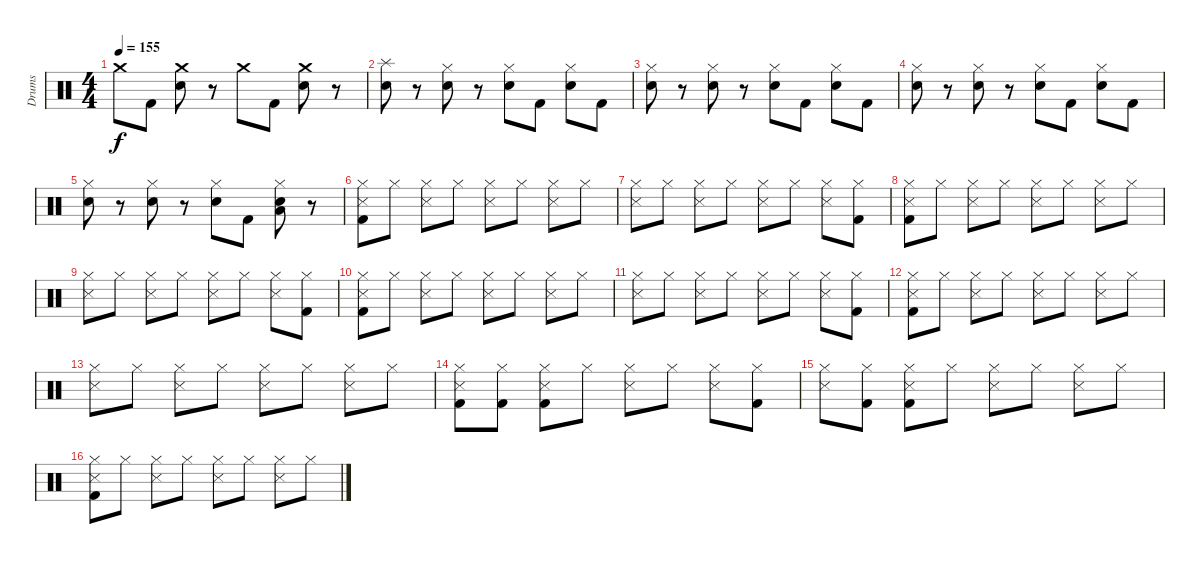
\track ("Drums" "Drums") {instrument percussion}
\staff {score}
\articulation defaults
\ts (4 4)
\tempo 155
\clef neutral
\ks c "Crash medium (hit)".8{dy f} "Kick (hit) 2".8
("Crash medium (hit)" "Electric Snare (hit)").8 r.8 "Crash medium (hit)".8 "Kick (hit) 2".8 ("Crash medium (hit)" "Electric Snare (hit)").8 r.8 |
("Splash (hit)" "Electric Snare (hit)").8 r.8 ("Hi-Hat (closed)" "Electric Snare (hit)").8 r.8 ("Hi-Hat (closed)" "Electric Snare (hit)").8 "Kick (hit) 2".8 ("Hi-Hat (closed)" "Electric Snare (hit)").8 "Kick (hit) 2".8 |
("Hi-Hat (closed)" "Electric Snare (hit)").8 r.8 ("Hi-Hat (closed)" "Electric Snare (hit)").8 r.8 ("Hi-Hat (closed)" "Electric Snare (hit)").8 "Kick (hit) 2".8 ("Hi-Hat (closed)" "Electric Snare (hit)").8 "Kick (hit) 2".8 |
("Hi-Hat (closed)" "Electric Snare (hit)").8 r.8 ("Hi-Hat (closed)" "Electric Snare (hit)").8 r.8 ("Hi-Hat (closed)" "Electric Snare (hit)").8 "Kick (hit) 2".8 ("Hi-Hat (closed)" "Electric Snare (hit)").8 "Kick (hit) 2".8 |
("Hi-Hat (closed)" "Electric Snare (hit)").8 r.8 ("Hi-Hat (closed)" "Electric Snare (hit)").8 r.8 ("Hi-Hat (closed)" "Electric Snare (hit)").8 "Kick (hit) 2".8 ("Hi-Hat (closed)" "Electric Snare (hit)" "Low Floor Tom (hit)").8 r.8 |
("Hi-Hat (closed)" "Snare (side stick) 3" "Kick (hit) 2").8 "Hi-Hat (closed)".8 ("Hi-Hat (closed)" "Snare (side stick) 3").8 "Hi-Hat (closed)".8 ("Hi-Hat (closed)" "Snare (side stick) 3").8 "Hi-Hat (closed)".8 ("Hi-Hat (closed)" "Snare (side stick) 3").8 "Hi-Hat (closed)".8 |
("Hi-Hat (closed)" "Snare (side stick) 3").8 "Hi-Hat (closed)".8 ("Hi-Hat (closed)" "Snare (side stick) 3").8 "Hi-Hat (closed)".8 ("Hi-Hat (closed)" "Snare (side stick) 3").8 "Hi-Hat (closed)".8 ("Hi-Hat (closed)" "Snare (side stick) 3").8 ("Hi-Hat (closed)" "Kick (hit) 2").8 |
("Hi-Hat (closed)" "Snare (side stick) 3" "Kick (hit) 2").8 "Hi-Hat (closed)".8 ("Hi-Hat (closed)" "Snare (side stick) 3").8 "Hi-Hat (closed)".8 ("Hi-Hat (closed)" "Snare (side stick) 3").8 "Hi-Hat (closed)".8 ("Hi-Hat (closed)" "Snare (side stick) 3").8 "Hi-Hat (closed)".8 |
("Hi-Hat (closed)" "Snare (side stick) 3").8 "Hi-Hat (closed)".8 ("Hi-Hat (closed)" "Snare (side stick) 3").8 "Hi-Hat (closed)".8 ("Hi-Hat (closed)" "Snare (side stick) 3").8 "Hi-Hat (closed)".8 ("Hi-Hat (closed)" "Snare (side stick) 3").8 ("Hi-Hat (closed)" "Kick (hit) 2").8 |
("Hi-Hat (closed)" "Snare (side stick) 3" "Kick (hit) 2").8 "Hi-Hat (closed)".8 ("Hi-Hat (closed)" "Snare (side stick) 3").8 "Hi-Hat (closed)".8 ("Hi-Hat (closed)" "Snare (side stick) 3").8 "Hi-Hat (closed)".8 ("Hi-Hat (closed)" "Snare (side stick) 3").8 "Hi-Hat (closed)".8 |
("Hi-Hat (closed)" "Snare (side stick) 3").8 "Hi-Hat (closed)".8 ("Hi-Hat (closed)" "Snare (side stick) 3").8 "Hi-Hat (closed)".8 ("Hi-Hat (closed)" "Snare (side stick) 3").8 "Hi-Hat (closed)".8 ("Hi-Hat (closed)" "Snare (side stick) 3").8 ("Hi-Hat (closed)" "Kick (hit) 2").8 |
("Hi-Hat (closed)" "Snare (side stick) 3" "Kick (hit) 2").8 "Hi-Hat (closed)".8 ("Hi-Hat (closed)" "Snare (side stick) 3").8 "Hi-Hat (closed)".8 ("Hi-Hat (closed)" "Snare (side stick) 3").8 "Hi-Hat (closed)".8 ("Hi-Hat (closed)" "Snare (side stick) 3").8 "Hi-Hat (closed)".8 |
("Hi-Hat (closed)" "Snare (side stick) 3").8 "Hi-Hat (closed)".8 ("Hi-Hat (closed)" "Snare (side stick) 3").8 "Hi-Hat (closed)".8 ("Hi-Hat (closed)" "Snare (side stick) 3").8 "Hi-Hat (closed)".8 ("Hi-Hat (closed)" "Snare (side stick) 3").8 "Hi-Hat (closed)".8 |
("Hi-Hat (closed)" "Snare (side stick) 3" "Kick (hit) 2").8 ("Hi-Hat (closed)" "Kick (hit) 2").8 ("Hi-Hat (closed)" "Snare (side stick) 3" "Kick (hit) 2").8 "Hi-Hat (closed)".8 ("Hi-Hat (closed)" "Snare (side stick) 3").8 "Hi-Hat (closed)".8 ("Hi-Hat (closed)" "Snare (side stick) 3").8 ("Hi-Hat (closed)" "Kick (hit) 2").8 |
("Hi-Hat (closed)" "Snare (side stick) 3").8 ("Hi-Hat (closed)" "Kick (hit) 2").8 ("Hi-Hat (closed)" "Snare (side stick) 3" "Kick (hit) 2").8 "Hi-Hat (closed)".8 ("Hi-Hat (closed)" "Snare (side stick) 3").8 "Hi-Hat (closed)".8 ("Hi-Hat (closed)" "Snare (side stick) 3").8 "Hi-Hat (closed)".8 |
("Hi-Hat (closed)" "Snare (side stick) 3" "Kick (hit) 2").8 "Hi-Hat (closed)".8 ("Hi-Hat (closed)" "Snare (side stick) 3").8 "Hi-Hat (closed)".8 ("Hi-Hat (closed)" "Snare (side stick) 3").8 "Hi-Hat (closed)".8 ("Hi-Hat (closed)" "Snare (side stick) 3").8 "Hi-Hat (closed)".8
